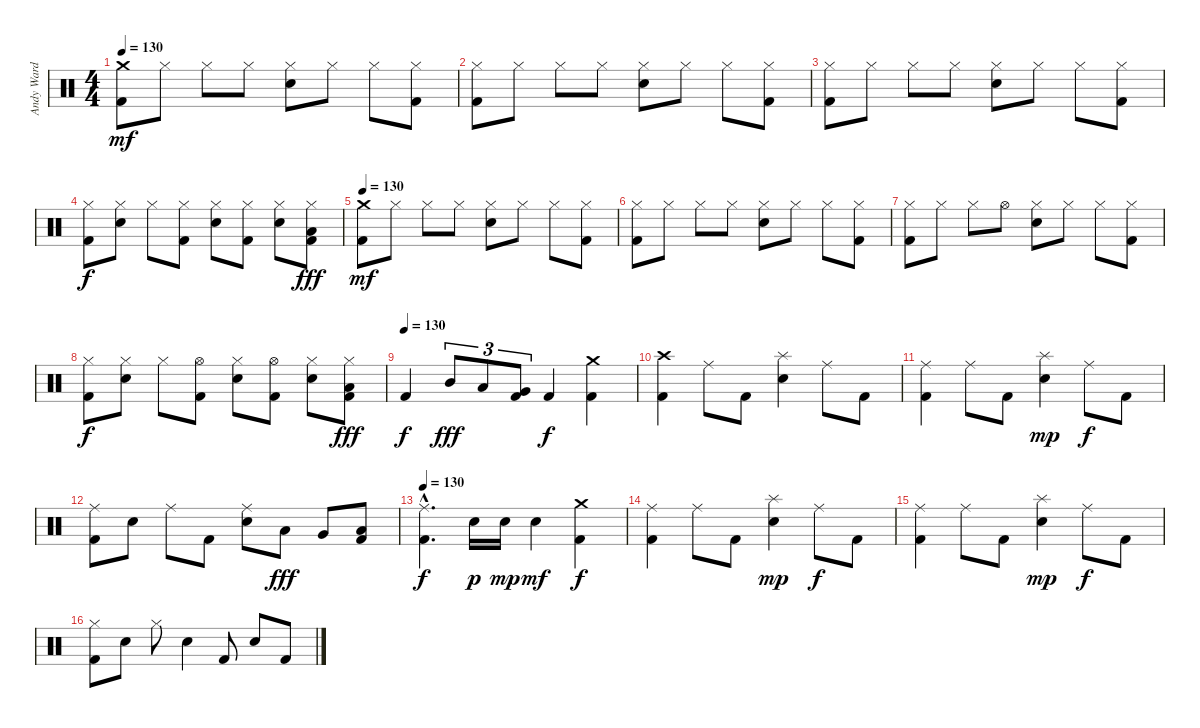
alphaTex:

\track ("Andy Ward" "Andy Ward") {instrument percussion}
\staff {score}
\articulation defaults
\ts (4 4)
\tempo 130
\clef neutral
\ks c
("Crash medium (hit)" "Kick (hit) 2").8{dy mf} "Hi-Hat (closed)".8 "Hi-Hat (closed)".8 "Hi-Hat (closed)".8 ("Hi-Hat (closed)" "Electric Snare (hit)").8 "Hi-Hat (closed)".8 "Hi-Hat (closed)".8 ("Hi-Hat (closed)" "Kick (hit) 2").8 |
("Hi-Hat (closed)" "Kick (hit) 2").8 "Hi-Hat (closed)".8 "Hi-Hat (closed)".8 "Hi-Hat (closed)".8 ("Hi-Hat (closed)" "Electric Snare (hit)").8 "Hi-Hat (closed)".8 "Hi-Hat (closed)".8 ("Hi-Hat (closed)" "Kick (hit) 2").8 |
("Hi-Hat (closed)" "Kick (hit) 2").8 "Hi-Hat (closed)".8 "Hi-Hat (closed)".8 "Hi-Hat (closed)".8 ("Hi-Hat (closed)" "Electric Snare (hit)").8 "Hi-Hat (closed)".8 "Hi-Hat (closed)".8 ("Hi-Hat (closed)" "Kick (hit) 2").8 |
("Hi-Hat (closed)" "Kick (hit) 2").8{dy f} ("Hi-Hat (closed)" "Electric Snare (hit)").8 "Hi-Hat (closed)".8 ("Hi-Hat (closed)" "Kick (hit) 2").8 ("Hi-Hat (closed)" "Electric Snare (hit)").8 ("Hi-Hat (closed)" "Kick (hit) 2").8 ("Hi-Hat (closed)" "Electric Snare (hit)").8 ("Hi-Hat (closed)" "Low Tom (hit)" "Kick (hit) 2").8{dy fff} |
\tempo 130
("Crash medium (hit)" "Kick (hit) 2").8{dy mf} "Hi-Hat (closed)".8 "Hi-Hat (closed)".8 "Hi-Hat (closed)".8 ("Hi-Hat (closed)" "Electric Snare (hit)").8 "Hi-Hat (closed)".8 "Hi-Hat (closed)".8 ("Hi-Hat (closed)" "Kick (hit) 2").8 |
("Hi-Hat (closed)" "Kick (hit) 2").8 "Hi-Hat (closed)".8 "Hi-Hat (closed)".8 "Hi-Hat (closed)".8 ("Hi-Hat (closed)" "Electric Snare (hit)").8 "Hi-Hat (closed)".8 "Hi-Hat (closed)".8 ("Hi-Hat (closed)" "Kick (hit) 2").8 |
("Hi-Hat (closed)" "Kick (hit) 2").8 "Hi-Hat (closed)".8 "Hi-Hat (closed)".8 "Hi-Hat (open)".8 ("Hi-Hat (closed)" "Electric Snare (hit)").8 "Hi-Hat (closed)".8 "Hi-Hat (closed)".8 ("Hi-Hat (closed)" "Kick (hit) 2").8 |
("Hi-Hat (closed)" "Kick (hit) 2").8{dy f} ("Hi-Hat (closed)" "Electric Snare (hit)").8 "Hi-Hat (closed)".8 ("Hi-Hat (open)" "Kick (hit) 2").8 ("Hi-Hat (closed)" "Electric Snare (hit)").8 ("Hi-Hat (open)" "Kick (hit) 2").8 ("Hi-Hat (closed)" "Electric Snare (hit)").8 ("Hi-Hat (closed)" "Low Tom (hit)" "Kick (hit) 2").8{dy fff} |
\tempo (130)
"Kick (hit) 2".4{dy f} "Mid Tom (hit)".8{tu (3 2) dy fff} "Low Tom (hit)".8{tu (3 2)} ("Very Low Tom (hit)" "Kick (hit) 2").8{tu (3 2)} "Kick (hit) 2".4{dy f} ("Crash medium (hit)" "Kick (hit) 2").4 |
("Crash high (hit)" "Kick (hit) 2").4 "Ride (middle)".8 "Kick (hit) 2".8 ("Splash (hit)" "Electric Snare (hit)").4 "Ride (middle)".8 "Kick (hit) 2".8 |
("Ride (middle)" "Kick (hit) 2").4 "Ride (middle)".8 "Kick (hit) 2".8 ("Splash (hit)" "Electric Snare (hit)").4{dy mp} "Ride (middle)".8{dy f} "Kick (hit) 2".8 |
("Ride (middle)" "Kick (hit) 2").8 "Electric Snare (hit)".8 "Ride (middle)".8 "Kick (hit) 2".8 ("Ride (middle)" "Electric Snare (hit)").8 "Low Tom (hit)".8{dy fff} "Very Low Tom (hit)".8 ("Low Floor Tom (hit)" "Kick (hit) 2").8 |
\tempo 130
("Ride (middle)"{hac} "Kick (hit) 2"{hac}).4{d dy f} "Electric Snare (hit)".16{dy p} "Electric Snare (hit)".16{dy mp} "Electric Snare (hit)".4{dy mf} ("Crash medium (hit)" "Kick (hit) 2").4{dy f} |
("Ride (middle)" "Kick (hit) 2").4 "Ride (middle)".8 "Kick (hit) 2".8 ("Splash (hit)" "Electric Snare (hit)").4{dy mp} "Ride (middle)".8{dy f} "Kick (hit) 2".8 |
("Ride (middle)" "Kick (hit) 2").4 "Ride (middle)".8 "Kick (hit) 2".8 ("Splash (hit)" "Electric Snare (hit)").4{dy mp} "Ride (middle)".8{dy f} "Kick (hit) 2".8 |
("Hi-Hat (closed)" "Kick (hit) 2").8 "Electric Snare (hit)".8 "Hi-Hat (closed)".8 "Electric Snare (hit)".4 "Kick (hit) 2".8 "Electric Snare (hit)".8 "Kick (hit) 2".8
